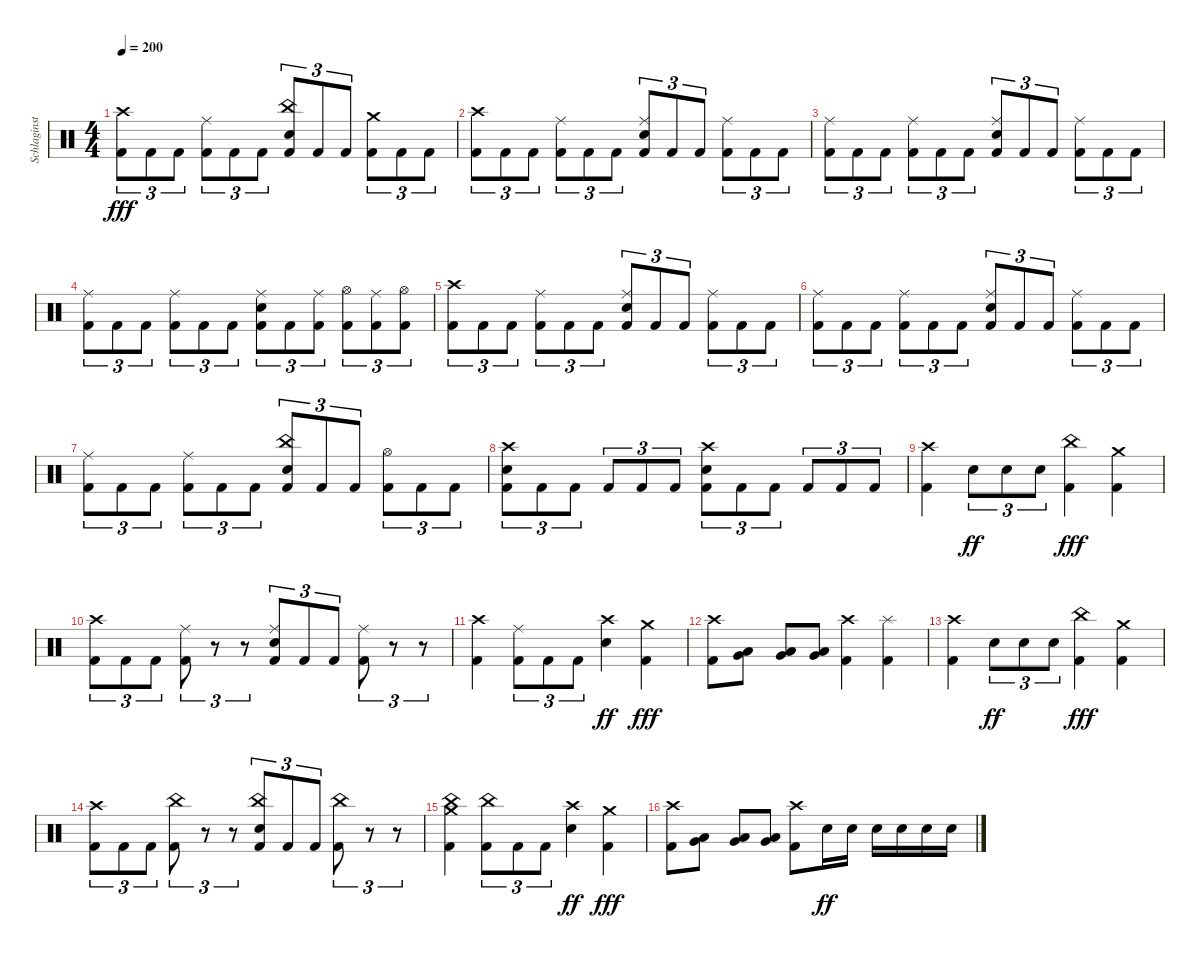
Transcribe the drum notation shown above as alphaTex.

\track ("Schlaginstrumente - Auswahl" "Schlaginst") {instrument percussion}
\staff {score}
\articulation defaults
\ts (4 4)
\tempo 200
\clef neutral
\ks c
("Crash high (hit)" "Kick (hit) 2").8{tu (3 2) dy fff} "Kick (hit) 2".8{tu (3 2)} "Kick (hit) 2".8{tu (3 2)} ("Ride (middle)" "Kick (hit) 2").8{tu (3 2)} "Kick (hit) 2".8{tu (3 2)} "Kick (hit) 2".8{tu (3 2)} ("China (hit)" "Snare (hit) 2" "Kick (hit) 2").8{tu (3 2)} "Kick (hit) 2".8{tu (3 2)} "Kick (hit) 2".8{tu (3 2)} ("Crash medium (hit)" "Kick (hit) 2").8{tu (3 2)} "Kick (hit) 2".8{tu (3 2)} "Kick (hit) 2".8{tu (3 2)} |
("Crash high (hit)" "Kick (hit) 2").8{tu (3 2)} "Kick (hit) 2".8{tu (3 2)} "Kick (hit) 2".8{tu (3 2)} ("Ride (middle)" "Kick (hit) 2").8{tu (3 2)} "Kick (hit) 2".8{tu (3 2)} "Kick (hit) 2".8{tu (3 2)} ("Ride (middle)" "Snare (hit) 2" "Kick (hit) 2").8{tu (3 2)} "Kick (hit) 2".8{tu (3 2)} "Kick (hit) 2".8{tu (3 2)} ("Ride (middle)" "Kick (hit) 2").8{tu (3 2)} "Kick (hit) 2".8{tu (3 2)} "Kick (hit) 2".8{tu (3 2)} |
("Ride (middle)" "Kick (hit) 2").8{tu (3 2)} "Kick (hit) 2".8{tu (3 2)} "Kick (hit) 2".8{tu (3 2)} ("Ride (middle)" "Kick (hit) 2").8{tu (3 2)} "Kick (hit) 2".8{tu (3 2)} "Kick (hit) 2".8{tu (3 2)} ("Ride (middle)" "Snare (hit) 2" "Kick (hit) 2").8{tu (3 2)} "Kick (hit) 2".8{tu (3 2)} "Kick (hit) 2".8{tu (3 2)} ("Ride (middle)" "Kick (hit) 2").8{tu (3 2)} "Kick (hit) 2".8{tu (3 2)} "Kick (hit) 2".8{tu (3 2)} |
("Ride (middle)" "Kick (hit) 2").8{tu (3 2)} "Kick (hit) 2".8{tu (3 2)} "Kick (hit) 2".8{tu (3 2)} ("Ride (middle)" "Kick (hit) 2").8{tu (3 2)} "Kick (hit) 2".8{tu (3 2)} "Kick (hit) 2".8{tu (3 2)} ("Ride (middle)" "Snare (hit) 2" "Kick (hit) 2").8{tu (3 2)} "Kick (hit) 2".8{tu (3 2)} ("Ride (middle)" "Kick (hit) 2").8{tu (3 2)} ("Hi-Hat (open)" "Kick (hit) 2").8{tu (3 2)} ("Ride (middle)" "Kick (hit) 2").8{tu (3 2)} ("Hi-Hat (open)" "Kick (hit) 2").8{tu (3 2)} |
("Crash high (hit)" "Kick (hit) 2").8{tu (3 2)} "Kick (hit) 2".8{tu (3 2)} "Kick (hit) 2".8{tu (3 2)} ("Ride (middle)" "Kick (hit) 2").8{tu (3 2)} "Kick (hit) 2".8{tu (3 2)} "Kick (hit) 2".8{tu (3 2)} ("Ride (middle)" "Snare (hit) 2" "Kick (hit) 2").8{tu (3 2)} "Kick (hit) 2".8{tu (3 2)} "Kick (hit) 2".8{tu (3 2)} ("Ride (middle)" "Kick (hit) 2").8{tu (3 2)} "Kick (hit) 2".8{tu (3 2)} "Kick (hit) 2".8{tu (3 2)} |
("Ride (middle)" "Kick (hit) 2").8{tu (3 2)} "Kick (hit) 2".8{tu (3 2)} "Kick (hit) 2".8{tu (3 2)} ("Ride (middle)" "Kick (hit) 2").8{tu (3 2)} "Kick (hit) 2".8{tu (3 2)} "Kick (hit) 2".8{tu (3 2)} ("Ride (middle)" "Snare (hit) 2" "Kick (hit) 2").8{tu (3 2)} "Kick (hit) 2".8{tu (3 2)} "Kick (hit) 2".8{tu (3 2)} ("Ride (middle)" "Kick (hit) 2").8{tu (3 2)} "Kick (hit) 2".8{tu (3 2)} "Kick (hit) 2".8{tu (3 2)} |
("Ride (middle)" "Kick (hit) 2").8{tu (3 2)} "Kick (hit) 2".8{tu (3 2)} "Kick (hit) 2".8{tu (3 2)} ("Ride (middle)" "Kick (hit) 2").8{tu (3 2)} "Kick (hit) 2".8{tu (3 2)} "Kick (hit) 2".8{tu (3 2)} ("China (hit)" "Snare (hit) 2" "Kick (hit) 2").8{tu (3 2)} "Kick (hit) 2".8{tu (3 2)} "Kick (hit) 2".8{tu (3 2)} ("Hi-Hat (open)" "Kick (hit) 2").8{tu (3 2)} "Kick (hit) 2".8{tu (3 2)} "Kick (hit) 2".8{tu (3 2)} |
("Crash high (hit)" "Snare (hit) 2" "Kick (hit) 2").8{tu (3 2)} "Kick (hit) 2".8{tu (3 2)} "Kick (hit) 2".8{tu (3 2)} "Kick (hit) 2".8{tu (3 2)} "Kick (hit) 2".8{tu (3 2)} "Kick (hit) 2".8{tu (3 2)} ("Crash high (hit)" "Snare (hit) 2" "Kick (hit) 2").8{tu (3 2)} "Kick (hit) 2".8{tu (3 2)} "Kick (hit) 2".8{tu (3 2)} "Kick (hit) 2".8{tu (3 2)} "Kick (hit) 2".8{tu (3 2)} "Kick (hit) 2".8{tu (3 2)} |
("Crash high (hit)" "Kick (hit) 2").4 "Snare (hit) 2".8{tu (3 2) dy ff} "Snare (hit) 2".8{tu (3 2)} "Snare (hit) 2".8{tu (3 2)} ("China (hit)" "Kick (hit) 2").4{dy fff} ("Crash medium (hit)" "Kick (hit) 2").4 |
("Crash high (hit)" "Kick (hit) 2").8{tu (3 2)} "Kick (hit) 2".8{tu (3 2)} "Kick (hit) 2".8{tu (3 2)} ("Ride (middle)" "Kick (hit) 2").8{tu (3 2)} r.8{tu (3 2)} r.8{tu (3 2)} ("Ride (middle)" "Snare (hit) 2" "Kick (hit) 2").8{tu (3 2)} "Kick (hit) 2".8{tu (3 2)} "Kick (hit) 2".8{tu (3 2)} ("Ride (middle)" "Kick (hit) 2").8{tu (3 2)} r.8{tu (3 2)} r.8{tu (3 2)} |
("Crash high (hit)" "Kick (hit) 2").4 ("Ride (middle)" "Kick (hit) 2").8{tu (3 2)} "Kick (hit) 2".8{tu (3 2)} "Kick (hit) 2".8{tu (3 2)} ("Crash high (hit)" "Snare (hit) 2").4{dy ff} ("Crash medium (hit)" "Kick (hit) 2").4{dy fff} |
("Crash high (hit)" "Kick (hit) 2").8 ("Very Low Tom (hit)" "Low Floor Tom (hit)").8 ("Very Low Tom (hit)" "Low Floor Tom (hit)").8 ("Very Low Tom (hit)" "Low Floor Tom (hit)").8 ("Crash high (hit)" "Kick (hit) 2").4 ("Splash (hit)" "Kick (hit) 2").4 |
("Crash high (hit)" "Kick (hit) 2").4 "Snare (hit) 2".8{tu (3 2) dy ff} "Snare (hit) 2".8{tu (3 2)} "Snare (hit) 2".8{tu (3 2)} ("China (hit)" "Kick (hit) 2").4{dy fff} ("Crash medium (hit)" "Kick (hit) 2").4 |
("Crash high (hit)" "Kick (hit) 2").8{tu (3 2)} "Kick (hit) 2".8{tu (3 2)} "Kick (hit) 2".8{tu (3 2)} ("China (hit)" "Kick (hit) 2").8{tu (3 2)} r.8{tu (3 2)} r.8{tu (3 2)} ("China (hit)" "Snare (hit) 2" "Kick (hit) 2").8{tu (3 2)} "Kick (hit) 2".8{tu (3 2)} "Kick (hit) 2".8{tu (3 2)} ("China (hit)" "Kick (hit) 2").8{tu (3 2)} r.8{tu (3 2)} r.8{tu (3 2)} |
("China (hit)" "Crash medium (hit)" "Kick (hit) 2").4 ("China (hit)" "Kick (hit) 2").8{tu (3 2)} "Kick (hit) 2".8{tu (3 2)} "Kick (hit) 2".8{tu (3 2)} ("Crash high (hit)" "Snare (hit) 2").4{dy ff} ("Crash medium (hit)" "Kick (hit) 2").4{dy fff} |
("Crash high (hit)" "Kick (hit) 2").8 ("Very Low Tom (hit)" "Low Floor Tom (hit)").8 ("Very Low Tom (hit)" "Low Floor Tom (hit)").8 ("Very Low Tom (hit)" "Low Floor Tom (hit)").8 ("Crash high (hit)" "Kick (hit) 2").8 "Snare (hit) 2".16{dy ff} "Snare (hit) 2".16 "Snare (hit) 2".16 "Snare (hit) 2".16 "Snare (hit) 2".16 "Snare (hit) 2".16
